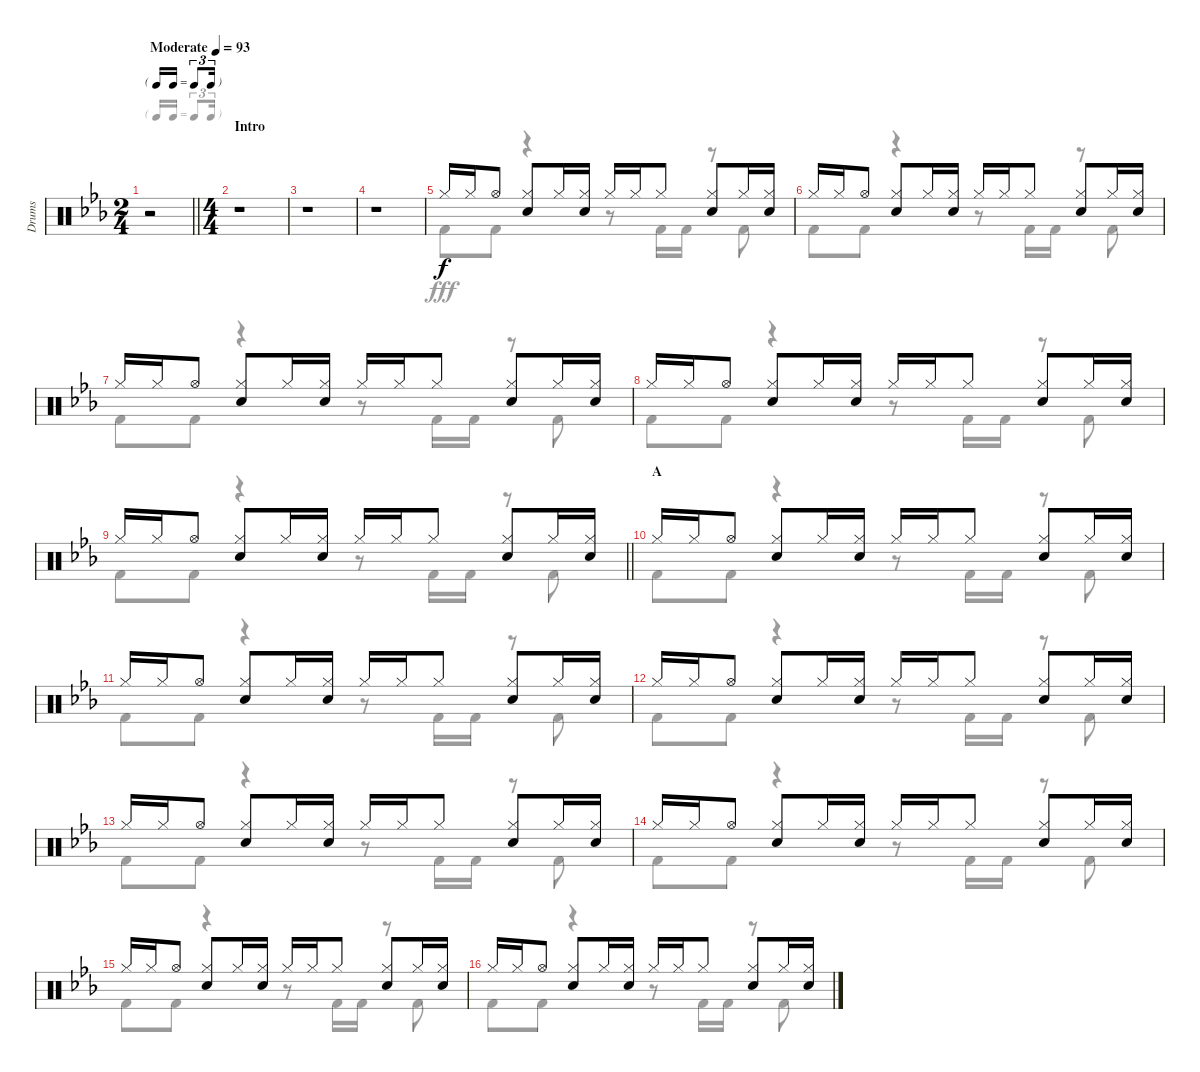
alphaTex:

\track ("Drums" "Drums") {instrument percussion}
\staff {score}
\articulation defaults
\voice
\ts (2 4)
\tf triplet16th
\tempo (93 "Moderate")
\clef neutral
\barLineRight lightlight
\ks eb
r.2{dy f} |
\ts (4 4)
\section ("" "Intro")
r.1 |
r.1 |
r.1 |
"Hi-Hat (closed)".16 "Hi-Hat (closed)".16 "Hi-Hat (open)".8 ("Hi-Hat (closed)" "Snare (hit) 2").8 "Hi-Hat (closed)".16 ("Hi-Hat (closed)" "Snare (hit) 2").16 "Hi-Hat (closed)".16 "Hi-Hat (closed)".16 "Hi-Hat (closed)".8 ("Hi-Hat (closed)" "Snare (hit) 2").8 "Hi-Hat (closed)".16 ("Hi-Hat (closed)" "Snare (hit) 2").16 |
"Hi-Hat (closed)".16 "Hi-Hat (closed)".16 "Hi-Hat (open)".8 ("Hi-Hat (closed)" "Snare (hit) 2").8 "Hi-Hat (closed)".16 ("Hi-Hat (closed)" "Snare (hit) 2").16 "Hi-Hat (closed)".16 "Hi-Hat (closed)".16 "Hi-Hat (closed)".8 ("Hi-Hat (closed)" "Snare (hit) 2").8 "Hi-Hat (closed)".16 ("Hi-Hat (closed)" "Snare (hit) 2").16 |
"Hi-Hat (closed)".16 "Hi-Hat (closed)".16 "Hi-Hat (open)".8 ("Hi-Hat (closed)" "Snare (hit) 2").8 "Hi-Hat (closed)".16 ("Hi-Hat (closed)" "Snare (hit) 2").16 "Hi-Hat (closed)".16 "Hi-Hat (closed)".16 "Hi-Hat (closed)".8 ("Hi-Hat (closed)" "Snare (hit) 2").8 "Hi-Hat (closed)".16 ("Hi-Hat (closed)" "Snare (hit) 2").16 |
"Hi-Hat (closed)".16 "Hi-Hat (closed)".16 "Hi-Hat (open)".8 ("Hi-Hat (closed)" "Snare (hit) 2").8 "Hi-Hat (closed)".16 ("Hi-Hat (closed)" "Snare (hit) 2").16 "Hi-Hat (closed)".16 "Hi-Hat (closed)".16 "Hi-Hat (closed)".8 ("Hi-Hat (closed)" "Snare (hit) 2").8 "Hi-Hat (closed)".16 ("Hi-Hat (closed)" "Snare (hit) 2").16 |
\barLineRight lightlight "Hi-Hat (closed)".16 "Hi-Hat (closed)".16 "Hi-Hat (open)".8
("Hi-Hat (closed)" "Snare (hit) 2").8 "Hi-Hat (closed)".16 ("Hi-Hat (closed)" "Snare (hit) 2").16 "Hi-Hat (closed)".16 "Hi-Hat (closed)".16 "Hi-Hat (closed)".8 ("Hi-Hat (closed)" "Snare (hit) 2").8 "Hi-Hat (closed)".16 ("Hi-Hat (closed)" "Snare (hit) 2").16 |
\section ("" "A")
"Hi-Hat (closed)".16 "Hi-Hat (closed)".16 "Hi-Hat (open)".8 ("Hi-Hat (closed)" "Snare (hit) 2").8 "Hi-Hat (closed)".16 ("Hi-Hat (closed)" "Snare (hit) 2").16 "Hi-Hat (closed)".16 "Hi-Hat (closed)".16 "Hi-Hat (closed)".8 ("Hi-Hat (closed)" "Snare (hit) 2").8 "Hi-Hat (closed)".16 ("Hi-Hat (closed)" "Snare (hit) 2").16 |
"Hi-Hat (closed)".16 "Hi-Hat (closed)".16 "Hi-Hat (open)".8 ("Hi-Hat (closed)" "Snare (hit) 2").8 "Hi-Hat (closed)".16 ("Hi-Hat (closed)" "Snare (hit) 2").16 "Hi-Hat (closed)".16 "Hi-Hat (closed)".16 "Hi-Hat (closed)".8 ("Hi-Hat (closed)" "Snare (hit) 2").8 "Hi-Hat (closed)".16 ("Hi-Hat (closed)" "Snare (hit) 2").16 |
"Hi-Hat (closed)".16 "Hi-Hat (closed)".16 "Hi-Hat (open)".8 ("Hi-Hat (closed)" "Snare (hit) 2").8 "Hi-Hat (closed)".16 ("Hi-Hat (closed)" "Snare (hit) 2").16 "Hi-Hat (closed)".16 "Hi-Hat (closed)".16 "Hi-Hat (closed)".8 ("Hi-Hat (closed)" "Snare (hit) 2").8 "Hi-Hat (closed)".16 ("Hi-Hat (closed)" "Snare (hit) 2").16 |
"Hi-Hat (closed)".16 "Hi-Hat (closed)".16 "Hi-Hat (open)".8 ("Hi-Hat (closed)" "Snare (hit) 2").8 "Hi-Hat (closed)".16 ("Hi-Hat (closed)" "Snare (hit) 2").16 "Hi-Hat (closed)".16 "Hi-Hat (closed)".16 "Hi-Hat (closed)".8 ("Hi-Hat (closed)" "Snare (hit) 2").8 "Hi-Hat (closed)".16 ("Hi-Hat (closed)" "Snare (hit) 2").16 |
"Hi-Hat (closed)".16 "Hi-Hat (closed)".16 "Hi-Hat (open)".8 ("Hi-Hat (closed)" "Snare (hit) 2").8 "Hi-Hat (closed)".16 ("Hi-Hat (closed)" "Snare (hit) 2").16 "Hi-Hat (closed)".16 "Hi-Hat (closed)".16 "Hi-Hat (closed)".8 ("Hi-Hat (closed)" "Snare (hit) 2").8 "Hi-Hat (closed)".16 ("Hi-Hat (closed)" "Snare (hit) 2").16 |
"Hi-Hat (closed)".16 "Hi-Hat (closed)".16 "Hi-Hat (open)".8 ("Hi-Hat (closed)" "Snare (hit) 2").8 "Hi-Hat (closed)".16 ("Hi-Hat (closed)" "Snare (hit) 2").16 "Hi-Hat (closed)".16 "Hi-Hat (closed)".16 "Hi-Hat (closed)".8 ("Hi-Hat (closed)" "Snare (hit) 2").8 "Hi-Hat (closed)".16 ("Hi-Hat (closed)" "Snare (hit) 2").16 |
"Hi-Hat (closed)".16 "Hi-Hat (closed)".16 "Hi-Hat (open)".8 ("Hi-Hat (closed)" "Snare (hit) 2").8 "Hi-Hat (closed)".16 ("Hi-Hat (closed)" "Snare (hit) 2").16 "Hi-Hat (closed)".16 "Hi-Hat (closed)".16 "Hi-Hat (closed)".8 ("Hi-Hat (closed)" "Snare (hit) 2").8 "Hi-Hat (closed)".16 ("Hi-Hat (closed)" "Snare (hit) 2").16
\voice
\clef neutral
\ottava regular
\simile none
\barLineRight lightlight
\ks eb
r.2{dy fff} |
r.1 |
r.1 |
r.1 |
"Kick (hit) 2".8 "Kick (hit) 2".8 r.4 r.8 "Kick (hit) 2".16 "Kick (hit) 2".16 r.8 "Kick (hit) 2".8 |
"Kick (hit) 2".8 "Kick (hit) 2".8 r.4 r.8 "Kick (hit) 2".16 "Kick (hit) 2".16 r.8 "Kick (hit) 2".8 |
"Kick (hit) 2".8 "Kick (hit) 2".8 r.4 r.8 "Kick (hit) 2".16 "Kick (hit) 2".16 r.8 "Kick (hit) 2".8 |
"Kick (hit) 2".8 "Kick (hit) 2".8 r.4 r.8 "Kick (hit) 2".16 "Kick (hit) 2".16 r.8 "Kick (hit) 2".8 |
\barLineRight lightlight "Kick (hit) 2".8 "Kick (hit) 2".8
r.4 r.8 "Kick (hit) 2".16 "Kick (hit) 2".16 r.8 "Kick (hit) 2".8 |
"Kick (hit) 2".8 "Kick (hit) 2".8 r.4 r.8 "Kick (hit) 2".16 "Kick (hit) 2".16 r.8 "Kick (hit) 2".8 |
"Kick (hit) 2".8 "Kick (hit) 2".8 r.4 r.8 "Kick (hit) 2".16 "Kick (hit) 2".16 r.8 "Kick (hit) 2".8 |
"Kick (hit) 2".8 "Kick (hit) 2".8 r.4 r.8 "Kick (hit) 2".16 "Kick (hit) 2".16 r.8 "Kick (hit) 2".8 |
"Kick (hit) 2".8 "Kick (hit) 2".8 r.4 r.8 "Kick (hit) 2".16 "Kick (hit) 2".16 r.8 "Kick (hit) 2".8 |
"Kick (hit) 2".8 "Kick (hit) 2".8 r.4 r.8 "Kick (hit) 2".16 "Kick (hit) 2".16 r.8 "Kick (hit) 2".8 |
"Kick (hit) 2".8 "Kick (hit) 2".8 r.4 r.8 "Kick (hit) 2".16 "Kick (hit) 2".16 r.8 "Kick (hit) 2".8 |
"Kick (hit) 2".8 "Kick (hit) 2".8 r.4 r.8 "Kick (hit) 2".16 "Kick (hit) 2".16 r.8 "Kick (hit) 2".8
